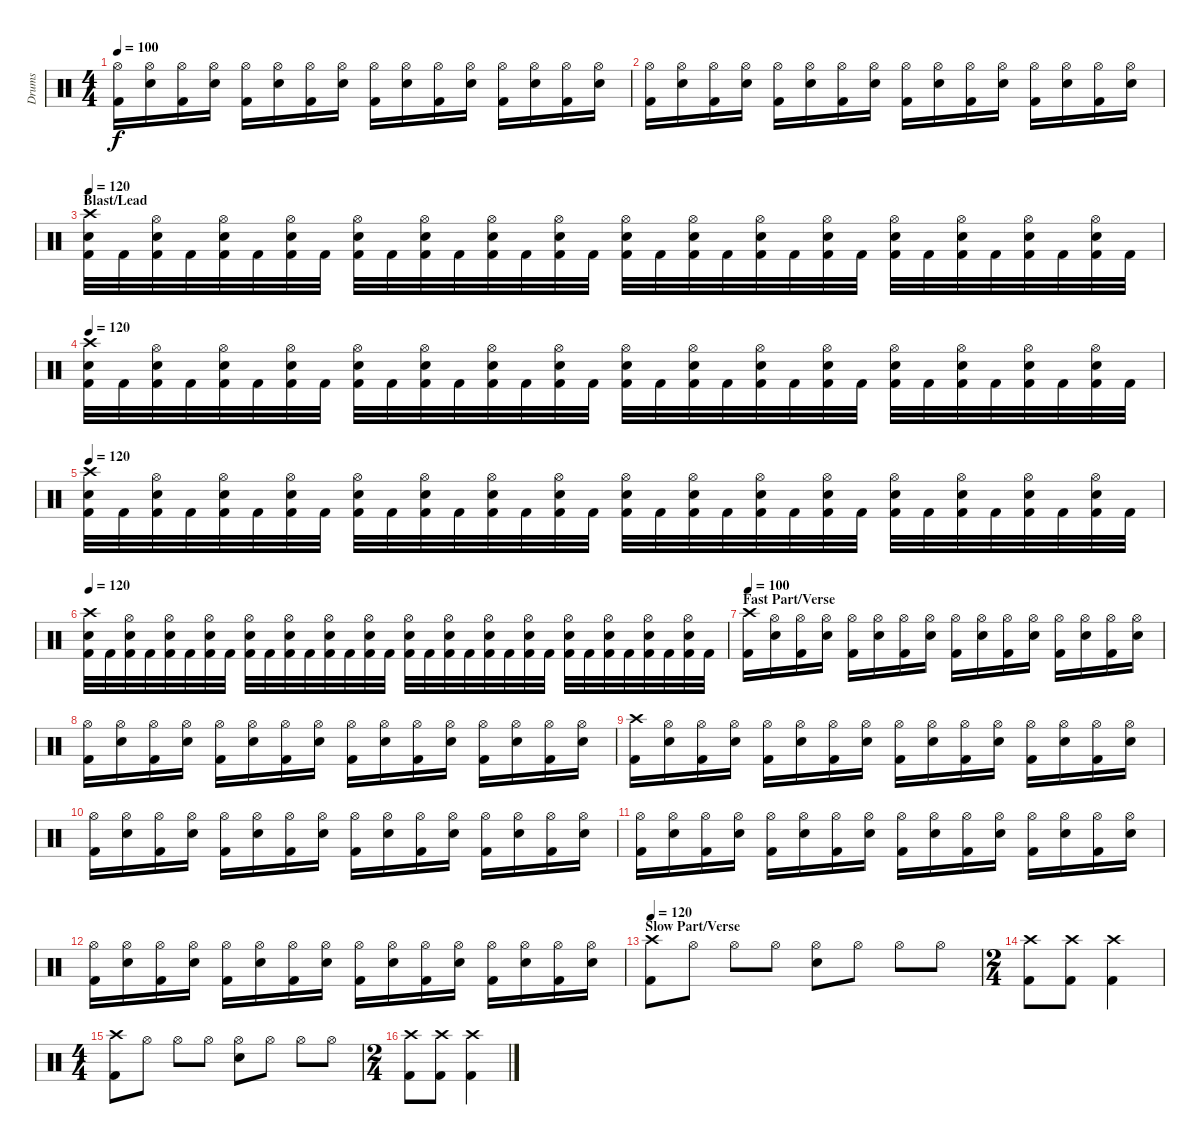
\track ("Drums" "Drums") {instrument percussion}
\staff {score}
\articulation defaults
\ts (4 4)
\tempo 100
\clef neutral
\ks c
("Hi-Hat (open)" "Kick (hit) 2").16{dy f} ("Hi-Hat (open)" "Electric Snare (hit)").16 ("Hi-Hat (open)" "Kick (hit) 2").16 ("Hi-Hat (open)" "Electric Snare (hit)").16 ("Hi-Hat (open)" "Kick (hit) 2").16 ("Hi-Hat (open)" "Electric Snare (hit)").16 ("Hi-Hat (open)" "Kick (hit) 2").16 ("Hi-Hat (open)" "Electric Snare (hit)").16 ("Hi-Hat (open)" "Kick (hit) 2").16 ("Hi-Hat (open)" "Electric Snare (hit)").16 ("Hi-Hat (open)" "Kick (hit) 2").16 ("Hi-Hat (open)" "Electric Snare (hit)").16 ("Hi-Hat (open)" "Kick (hit) 2").16 ("Hi-Hat (open)" "Electric Snare (hit)").16 ("Hi-Hat (open)" "Kick (hit) 2").16 ("Hi-Hat (open)" "Electric Snare (hit)").16 |
("Hi-Hat (open)" "Kick (hit) 2").16 ("Hi-Hat (open)" "Electric Snare (hit)").16 ("Hi-Hat (open)" "Kick (hit) 2").16 ("Hi-Hat (open)" "Electric Snare (hit)").16 ("Hi-Hat (open)" "Kick (hit) 2").16 ("Hi-Hat (open)" "Electric Snare (hit)").16 ("Hi-Hat (open)" "Kick (hit) 2").16 ("Hi-Hat (open)" "Electric Snare (hit)").16 ("Hi-Hat (open)" "Kick (hit) 2").16 ("Hi-Hat (open)" "Electric Snare (hit)").16 ("Hi-Hat (open)" "Kick (hit) 2").16 ("Hi-Hat (open)" "Electric Snare (hit)").16 ("Hi-Hat (open)" "Kick (hit) 2").16 ("Hi-Hat (open)" "Electric Snare (hit)").16 ("Hi-Hat (open)" "Kick (hit) 2").16 ("Hi-Hat (open)" "Electric Snare (hit)").16 |
\section ("" "Blast/Lead")
\tempo 120
("Crash high (hit)" "Electric Snare (hit)" "Kick (hit) 2").32 "Kick (hit) 2".32 ("Hi-Hat (open)" "Electric Snare (hit)" "Kick (hit) 2").32 "Kick (hit) 2".32 ("Hi-Hat (open)" "Electric Snare (hit)" "Kick (hit) 2").32 "Kick (hit) 2".32 ("Hi-Hat (open)" "Electric Snare (hit)" "Kick (hit) 2").32 "Kick (hit) 2".32 ("Hi-Hat (open)" "Electric Snare (hit)" "Kick (hit) 2").32 "Kick (hit) 2".32 ("Hi-Hat (open)" "Electric Snare (hit)" "Kick (hit) 2").32 "Kick (hit) 2".32 ("Hi-Hat (open)" "Electric Snare (hit)" "Kick (hit) 2").32 "Kick (hit) 2".32 ("Hi-Hat (open)" "Electric Snare (hit)" "Kick (hit) 2").32 "Kick (hit) 2".32 ("Hi-Hat (open)" "Electric Snare (hit)" "Kick (hit) 2").32 "Kick (hit) 2".32 ("Hi-Hat (open)" "Electric Snare (hit)" "Kick (hit) 2").32 "Kick (hit) 2".32 ("Hi-Hat (open)" "Electric Snare (hit)" "Kick (hit) 2").32 "Kick (hit) 2".32 ("Hi-Hat (open)" "Electric Snare (hit)" "Kick (hit) 2").32 "Kick (hit) 2".32 ("Hi-Hat (open)" "Electric Snare (hit)" "Kick (hit) 2").32 "Kick (hit) 2".32 ("Hi-Hat (open)" "Electric Snare (hit)" "Kick (hit) 2").32 "Kick (hit) 2".32 ("Hi-Hat (open)" "Electric Snare (hit)" "Kick (hit) 2").32 "Kick (hit) 2".32 ("Hi-Hat (open)" "Electric Snare (hit)" "Kick (hit) 2").32 "Kick (hit) 2".32 |
\tempo 120
("Crash high (hit)" "Electric Snare (hit)" "Kick (hit) 2").32 "Kick (hit) 2".32 ("Hi-Hat (open)" "Electric Snare (hit)" "Kick (hit) 2").32 "Kick (hit) 2".32 ("Hi-Hat (open)" "Electric Snare (hit)" "Kick (hit) 2").32 "Kick (hit) 2".32 ("Hi-Hat (open)" "Electric Snare (hit)" "Kick (hit) 2").32 "Kick (hit) 2".32 ("Hi-Hat (open)" "Electric Snare (hit)" "Kick (hit) 2").32 "Kick (hit) 2".32 ("Hi-Hat (open)" "Electric Snare (hit)" "Kick (hit) 2").32 "Kick (hit) 2".32 ("Hi-Hat (open)" "Electric Snare (hit)" "Kick (hit) 2").32 "Kick (hit) 2".32 ("Hi-Hat (open)" "Electric Snare (hit)" "Kick (hit) 2").32 "Kick (hit) 2".32 ("Hi-Hat (open)" "Electric Snare (hit)" "Kick (hit) 2").32 "Kick (hit) 2".32 ("Hi-Hat (open)" "Electric Snare (hit)" "Kick (hit) 2").32 "Kick (hit) 2".32 ("Hi-Hat (open)" "Electric Snare (hit)" "Kick (hit) 2").32 "Kick (hit) 2".32 ("Hi-Hat (open)" "Electric Snare (hit)" "Kick (hit) 2").32 "Kick (hit) 2".32 ("Hi-Hat (open)" "Electric Snare (hit)" "Kick (hit) 2").32 "Kick (hit) 2".32 ("Hi-Hat (open)" "Electric Snare (hit)" "Kick (hit) 2").32 "Kick (hit) 2".32 ("Hi-Hat (open)" "Electric Snare (hit)" "Kick (hit) 2").32 "Kick (hit) 2".32 ("Hi-Hat (open)" "Electric Snare (hit)" "Kick (hit) 2").32 "Kick (hit) 2".32 |
\tempo 120
("Crash high (hit)" "Electric Snare (hit)" "Kick (hit) 2").32 "Kick (hit) 2".32 ("Hi-Hat (open)" "Electric Snare (hit)" "Kick (hit) 2").32 "Kick (hit) 2".32 ("Hi-Hat (open)" "Electric Snare (hit)" "Kick (hit) 2").32 "Kick (hit) 2".32 ("Hi-Hat (open)" "Electric Snare (hit)" "Kick (hit) 2").32 "Kick (hit) 2".32 ("Hi-Hat (open)" "Electric Snare (hit)" "Kick (hit) 2").32 "Kick (hit) 2".32 ("Hi-Hat (open)" "Electric Snare (hit)" "Kick (hit) 2").32 "Kick (hit) 2".32 ("Hi-Hat (open)" "Electric Snare (hit)" "Kick (hit) 2").32 "Kick (hit) 2".32 ("Hi-Hat (open)" "Electric Snare (hit)" "Kick (hit) 2").32 "Kick (hit) 2".32 ("Hi-Hat (open)" "Electric Snare (hit)" "Kick (hit) 2").32 "Kick (hit) 2".32 ("Hi-Hat (open)" "Electric Snare (hit)" "Kick (hit) 2").32 "Kick (hit) 2".32 ("Hi-Hat (open)" "Electric Snare (hit)" "Kick (hit) 2").32 "Kick (hit) 2".32 ("Hi-Hat (open)" "Electric Snare (hit)" "Kick (hit) 2").32 "Kick (hit) 2".32 ("Hi-Hat (open)" "Electric Snare (hit)" "Kick (hit) 2").32 "Kick (hit) 2".32 ("Hi-Hat (open)" "Electric Snare (hit)" "Kick (hit) 2").32 "Kick (hit) 2".32 ("Hi-Hat (open)" "Electric Snare (hit)" "Kick (hit) 2").32 "Kick (hit) 2".32 ("Hi-Hat (open)" "Electric Snare (hit)" "Kick (hit) 2").32 "Kick (hit) 2".32 |
\tempo 120
("Crash high (hit)" "Electric Snare (hit)" "Kick (hit) 2").32 "Kick (hit) 2".32 ("Hi-Hat (open)" "Electric Snare (hit)" "Kick (hit) 2").32 "Kick (hit) 2".32 ("Hi-Hat (open)" "Electric Snare (hit)" "Kick (hit) 2").32 "Kick (hit) 2".32 ("Hi-Hat (open)" "Electric Snare (hit)" "Kick (hit) 2").32 "Kick (hit) 2".32 ("Hi-Hat (open)" "Electric Snare (hit)" "Kick (hit) 2").32 "Kick (hit) 2".32 ("Hi-Hat (open)" "Electric Snare (hit)" "Kick (hit) 2").32 "Kick (hit) 2".32 ("Hi-Hat (open)" "Electric Snare (hit)" "Kick (hit) 2").32 "Kick (hit) 2".32 ("Hi-Hat (open)" "Electric Snare (hit)" "Kick (hit) 2").32 "Kick (hit) 2".32 ("Hi-Hat (open)" "Electric Snare (hit)" "Kick (hit) 2").32 "Kick (hit) 2".32 ("Hi-Hat (open)" "Electric Snare (hit)" "Kick (hit) 2").32 "Kick (hit) 2".32 ("Hi-Hat (open)" "Electric Snare (hit)" "Kick (hit) 2").32 "Kick (hit) 2".32 ("Hi-Hat (open)" "Electric Snare (hit)" "Kick (hit) 2").32 "Kick (hit) 2".32 ("Hi-Hat (open)" "Electric Snare (hit)" "Kick (hit) 2").32 "Kick (hit) 2".32 ("Hi-Hat (open)" "Electric Snare (hit)" "Kick (hit) 2").32 "Kick (hit) 2".32 ("Hi-Hat (open)" "Electric Snare (hit)" "Kick (hit) 2").32 "Kick (hit) 2".32 ("Hi-Hat (open)" "Electric Snare (hit)" "Kick (hit) 2").32 "Kick (hit) 2".32 |
\section ("" "Fast Part/Verse")
\tempo 100
("Crash high (hit)" "Kick (hit) 2").16 ("Hi-Hat (open)" "Electric Snare (hit)").16 ("Hi-Hat (open)" "Kick (hit) 2").16 ("Hi-Hat (open)" "Electric Snare (hit)").16 ("Hi-Hat (open)" "Kick (hit) 2").16 ("Hi-Hat (open)" "Electric Snare (hit)").16 ("Hi-Hat (open)" "Kick (hit) 2").16 ("Hi-Hat (open)" "Electric Snare (hit)").16 ("Hi-Hat (open)" "Kick (hit) 2").16 ("Hi-Hat (open)" "Electric Snare (hit)").16 ("Hi-Hat (open)" "Kick (hit) 2").16 ("Hi-Hat (open)" "Electric Snare (hit)").16 ("Hi-Hat (open)" "Kick (hit) 2").16 ("Hi-Hat (open)" "Electric Snare (hit)").16 ("Hi-Hat (open)" "Kick (hit) 2").16 ("Hi-Hat (open)" "Electric Snare (hit)").16 |
("Hi-Hat (open)" "Kick (hit) 2").16 ("Hi-Hat (open)" "Electric Snare (hit)").16 ("Hi-Hat (open)" "Kick (hit) 2").16 ("Hi-Hat (open)" "Electric Snare (hit)").16 ("Hi-Hat (open)" "Kick (hit) 2").16 ("Hi-Hat (open)" "Electric Snare (hit)").16 ("Hi-Hat (open)" "Kick (hit) 2").16 ("Hi-Hat (open)" "Electric Snare (hit)").16 ("Hi-Hat (open)" "Kick (hit) 2").16 ("Hi-Hat (open)" "Electric Snare (hit)").16 ("Hi-Hat (open)" "Kick (hit) 2").16 ("Hi-Hat (open)" "Electric Snare (hit)").16 ("Hi-Hat (open)" "Kick (hit) 2").16 ("Hi-Hat (open)" "Electric Snare (hit)").16 ("Hi-Hat (open)" "Kick (hit) 2").16 ("Hi-Hat (open)" "Electric Snare (hit)").16 |
("Crash high (hit)" "Kick (hit) 2").16 ("Hi-Hat (open)" "Electric Snare (hit)").16 ("Hi-Hat (open)" "Kick (hit) 2").16 ("Hi-Hat (open)" "Electric Snare (hit)").16 ("Hi-Hat (open)" "Kick (hit) 2").16 ("Hi-Hat (open)" "Electric Snare (hit)").16 ("Hi-Hat (open)" "Kick (hit) 2").16 ("Hi-Hat (open)" "Electric Snare (hit)").16 ("Hi-Hat (open)" "Kick (hit) 2").16 ("Hi-Hat (open)" "Electric Snare (hit)").16 ("Hi-Hat (open)" "Kick (hit) 2").16 ("Hi-Hat (open)" "Electric Snare (hit)").16 ("Hi-Hat (open)" "Kick (hit) 2").16 ("Hi-Hat (open)" "Electric Snare (hit)").16 ("Hi-Hat (open)" "Kick (hit) 2").16 ("Hi-Hat (open)" "Electric Snare (hit)").16 |
("Hi-Hat (open)" "Kick (hit) 2").16 ("Hi-Hat (open)" "Electric Snare (hit)").16 ("Hi-Hat (open)" "Kick (hit) 2").16 ("Hi-Hat (open)" "Electric Snare (hit)").16 ("Hi-Hat (open)" "Kick (hit) 2").16 ("Hi-Hat (open)" "Electric Snare (hit)").16 ("Hi-Hat (open)" "Kick (hit) 2").16 ("Hi-Hat (open)" "Electric Snare (hit)").16 ("Hi-Hat (open)" "Kick (hit) 2").16 ("Hi-Hat (open)" "Electric Snare (hit)").16 ("Hi-Hat (open)" "Kick (hit) 2").16 ("Hi-Hat (open)" "Electric Snare (hit)").16 ("Hi-Hat (open)" "Kick (hit) 2").16 ("Hi-Hat (open)" "Electric Snare (hit)").16 ("Hi-Hat (open)" "Kick (hit) 2").16 ("Hi-Hat (open)" "Electric Snare (hit)").16 |
("Hi-Hat (open)" "Kick (hit) 2").16 ("Hi-Hat (open)" "Electric Snare (hit)").16 ("Hi-Hat (open)" "Kick (hit) 2").16 ("Hi-Hat (open)" "Electric Snare (hit)").16 ("Hi-Hat (open)" "Kick (hit) 2").16 ("Hi-Hat (open)" "Electric Snare (hit)").16 ("Hi-Hat (open)" "Kick (hit) 2").16 ("Hi-Hat (open)" "Electric Snare (hit)").16 ("Hi-Hat (open)" "Kick (hit) 2").16 ("Hi-Hat (open)" "Electric Snare (hit)").16 ("Hi-Hat (open)" "Kick (hit) 2").16 ("Hi-Hat (open)" "Electric Snare (hit)").16 ("Hi-Hat (open)" "Kick (hit) 2").16 ("Hi-Hat (open)" "Electric Snare (hit)").16 ("Hi-Hat (open)" "Kick (hit) 2").16 ("Hi-Hat (open)" "Electric Snare (hit)").16 |
("Hi-Hat (open)" "Kick (hit) 2").16 ("Hi-Hat (open)" "Electric Snare (hit)").16 ("Hi-Hat (open)" "Kick (hit) 2").16 ("Hi-Hat (open)" "Electric Snare (hit)").16 ("Hi-Hat (open)" "Kick (hit) 2").16 ("Hi-Hat (open)" "Electric Snare (hit)").16 ("Hi-Hat (open)" "Kick (hit) 2").16 ("Hi-Hat (open)" "Electric Snare (hit)").16 ("Hi-Hat (open)" "Kick (hit) 2").16 ("Hi-Hat (open)" "Electric Snare (hit)").16 ("Hi-Hat (open)" "Kick (hit) 2").16 ("Hi-Hat (open)" "Electric Snare (hit)").16 ("Hi-Hat (open)" "Kick (hit) 2").16 ("Hi-Hat (open)" "Electric Snare (hit)").16 ("Hi-Hat (open)" "Kick (hit) 2").16 ("Hi-Hat (open)" "Electric Snare (hit)").16 |
\section ("" "Slow Part/Verse")
\tempo 120
("Crash high (hit)" "Kick (hit) 2").8 "Hi-Hat (open)".8 "Hi-Hat (open)".8 "Hi-Hat (open)".8 ("Hi-Hat (open)" "Electric Snare (hit)").8 "Hi-Hat (open)".8 "Hi-Hat (open)".8 "Hi-Hat (open)".8 |
\ts (2 4)
("Crash high (hit)" "Kick (hit) 2").8 ("Crash high (hit)" "Kick (hit) 2").8 ("Crash high (hit)" "Kick (hit) 2").4 |
\ts (4 4)
("Crash high (hit)" "Kick (hit) 2").8 "Hi-Hat (open)".8 "Hi-Hat (open)".8 "Hi-Hat (open)".8 ("Hi-Hat (open)" "Electric Snare (hit)").8 "Hi-Hat (open)".8 "Hi-Hat (open)".8 "Hi-Hat (open)".8 |
\ts (2 4)
("Crash high (hit)" "Kick (hit) 2").8 ("Crash high (hit)" "Kick (hit) 2").8 ("Crash high (hit)" "Kick (hit) 2").4
